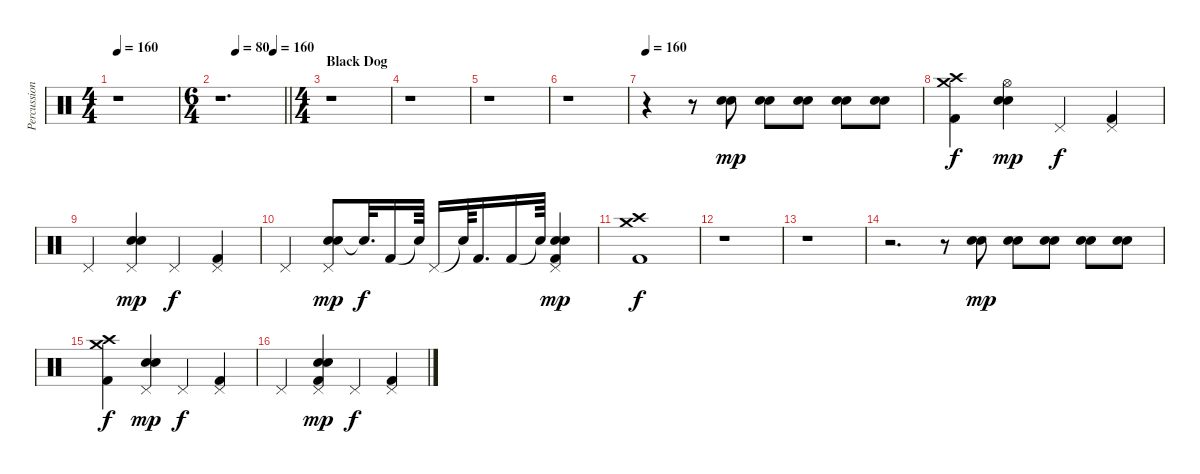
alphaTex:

\track ("Percussion" "Percussion") {instrument percussion}
\staff {score}
\articulation defaults
\ts (4 4)
\tempo 160
\tempo 109
\tempo 160
\clef neutral
\ks c
r.1{dy mp} |
\ts (6 4)
\tempo (80 0.25)
\tempo (160 0.8333333333333334)
\barLineRight lightlight
r.1{d} |
\ts (4 4)
\section ("" "Black Dog")
r.1 |
r.1 |
r.1 |
r.1 |
\tempo 160
r.4 r.8 ("Snare (hit) 2" "Electric Snare (hit)").8 ("Snare (hit) 2" "Electric Snare (hit)").8 ("Snare (hit) 2" "Electric Snare (hit)").8 ("Snare (hit) 2" "Electric Snare (hit)").8 ("Snare (hit) 2" "Electric Snare (hit)").8 |
("Crash medium (hit)" "Kick (hit) 2" "Crash high (hit)").4{dy f} ("Snare (hit) 2" "Electric Snare (hit)" "Hi-Hat (open)").4{dy mp} "Pedal Hi-Hat (hit)".4{dy f} ("Pedal Hi-Hat (hit)" "Kick (hit) 2").4 |
"Pedal Hi-Hat (hit)".4 ("Snare (hit) 2" "Pedal Hi-Hat (hit)" "Electric Snare (hit)").4{dy mp} "Pedal Hi-Hat (hit)".4{dy f} ("Kick (hit) 2" "Pedal Hi-Hat (hit)").4 |
"Pedal Hi-Hat (hit)".4 ("Snare (hit) 2" "Electric Snare (hit)" "Pedal Hi-Hat (hit)").8{dy mp} "Snare (hit)"{t}.32{d dy f} "Kick (hit) 2".16 "Snare (hit)"{t}.64 "Pedal Hi-Hat (hit)".16 "Snare (hit)"{t}.64 "Kick (hit) 2".16{d} "Kick (hit) 2".16 "Snare (hit)"{t}.64 ("Snare (hit) 2" "Electric Snare (hit)" "Pedal Hi-Hat (hit)" "Kick (hit) 2").4{dy mp} |
("Kick (hit) 2" "Crash high (hit)" "Crash medium (hit)").1{dy f} |
r.1 |
r.1 |
r.2{d} r.8 ("Snare (hit) 2" "Electric Snare (hit)").8{dy mp} ("Snare (hit) 2" "Electric Snare (hit)").8 ("Snare (hit) 2" "Electric Snare (hit)").8 ("Snare (hit) 2" "Electric Snare (hit)").8 ("Snare (hit) 2" "Electric Snare (hit)").8 |
("Crash medium (hit)" "Kick (hit) 2" "Crash high (hit)").4{dy f} ("Snare (hit) 2" "Electric Snare (hit)" "Pedal Hi-Hat (hit)").4{dy mp} "Pedal Hi-Hat (hit)".4{dy f} ("Pedal Hi-Hat (hit)" "Kick (hit) 2").4 |
"Pedal Hi-Hat (hit)".4 ("Snare (hit) 2" "Pedal Hi-Hat (hit)" "Kick (hit) 2" "Electric Snare (hit)").4{dy mp} "Pedal Hi-Hat (hit)".4{dy f} ("Kick (hit) 2" "Pedal Hi-Hat (hit)").4
